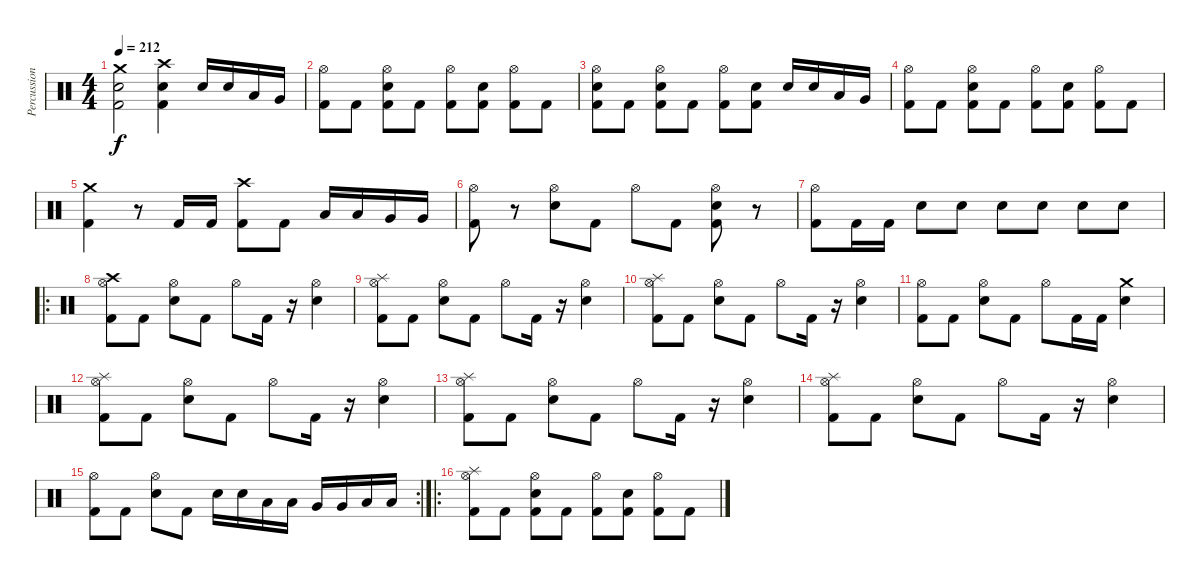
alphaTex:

\track ("Percussions" "Percussion") {instrument percussion}
\staff {score}
\articulation defaults
\ts (4 4)
\tempo 212
\clef neutral
\ks c
("Crash medium (hit)" "Snare (hit) 2" "Kick (hit) 2").2{dy f} ("Crash high (hit)" "Snare (hit) 2" "Kick (hit) 2").4 "Snare (hit) 2".16 "Snare (hit) 2".16 "Low Tom (hit)".16 "Very Low Tom (hit)".16 |
("Hi-Hat (open)" "Kick (hit) 2").8 "Kick (hit) 2".8 ("Hi-Hat (open)" "Snare (hit) 2" "Kick (hit) 2").8 "Kick (hit) 2".8 ("Hi-Hat (open)" "Kick (hit) 2").8 ("Snare (hit) 2" "Kick (hit) 2").8 ("Hi-Hat (open)" "Kick (hit) 2").8 "Kick (hit) 2".8 |
("Hi-Hat (open)" "Snare (hit) 2" "Kick (hit) 2").8 "Kick (hit) 2".8 ("Hi-Hat (open)" "Snare (hit) 2" "Kick (hit) 2").8 "Kick (hit) 2".8 ("Hi-Hat (open)" "Kick (hit) 2").8 ("Snare (hit) 2" "Kick (hit) 2").8 "Snare (hit) 2".16 "Snare (hit) 2".16 "Low Tom (hit)".16 "Very Low Tom (hit)".16 |
("Hi-Hat (open)" "Kick (hit) 2").8 "Kick (hit) 2".8 ("Hi-Hat (open)" "Snare (hit) 2" "Kick (hit) 2").8 "Kick (hit) 2".8 ("Hi-Hat (open)" "Kick (hit) 2").8 ("Snare (hit) 2" "Kick (hit) 2").8 ("Hi-Hat (open)" "Kick (hit) 2").8 "Kick (hit) 2".8 |
("Crash medium (hit)" "Kick (hit) 2").4 r.8 "Kick (hit) 2".16 "Kick (hit) 2".16 ("Crash high (hit)" "Kick (hit) 2").8 "Kick (hit) 2".8 "Low Tom (hit)".16 "Low Tom (hit)".16 "Very Low Tom (hit)".16 "Very Low Tom (hit)".16 |
("Hi-Hat (open)" "Kick (hit) 2").8 r.8 ("Hi-Hat (open)" "Snare (hit) 2").8 "Kick (hit) 2".8 "Hi-Hat (open)".8 "Kick (hit) 2".8 ("Hi-Hat (open)" "Snare (hit) 2" "Kick (hit) 2").8 r.8 |
("Hi-Hat (open)" "Kick (hit) 2").8 "Kick (hit) 2".16 "Kick (hit) 2".16 "Snare (hit) 2".8 "Snare (hit) 2".8 "Snare (hit) 2".8 "Snare (hit) 2".8 "Snare (hit) 2".8 "Snare (hit) 2".8 |
\ro
("Hi-Hat (open)" "Crash high (hit)" "Kick (hit) 2").8 "Kick (hit) 2".8 ("Hi-Hat (open)" "Snare (hit) 2").8 "Kick (hit) 2".8 "Hi-Hat (open)".8 "Kick (hit) 2".16 r.16 ("Hi-Hat (open)" "Snare (hit) 2").4 |
("Hi-Hat (open)" "Splash (hit)" "Kick (hit) 2").8 "Kick (hit) 2".8 ("Hi-Hat (open)" "Snare (hit) 2").8 "Kick (hit) 2".8 "Hi-Hat (open)".8 "Kick (hit) 2".16 r.16 ("Hi-Hat (open)" "Snare (hit) 2").4 |
("Hi-Hat (open)" "Splash (hit)" "Kick (hit) 2").8 "Kick (hit) 2".8 ("Hi-Hat (open)" "Snare (hit) 2").8 "Kick (hit) 2".8 "Hi-Hat (open)".8 "Kick (hit) 2".16 r.16 ("Hi-Hat (open)" "Snare (hit) 2").4 |
("Hi-Hat (open)" "Kick (hit) 2").8 "Kick (hit) 2".8 ("Hi-Hat (open)" "Snare (hit) 2").8 "Kick (hit) 2".8 "Hi-Hat (open)".8 "Kick (hit) 2".16 "Kick (hit) 2".16 ("Crash medium (hit)" "Snare (hit) 2").4 |
("Hi-Hat (open)" "Splash (hit)" "Kick (hit) 2").8 "Kick (hit) 2".8 ("Hi-Hat (open)" "Snare (hit) 2").8 "Kick (hit) 2".8 "Hi-Hat (open)".8 "Kick (hit) 2".16 r.16 ("Hi-Hat (open)" "Snare (hit) 2").4 |
("Hi-Hat (open)" "Splash (hit)" "Kick (hit) 2").8 "Kick (hit) 2".8 ("Hi-Hat (open)" "Snare (hit) 2").8 "Kick (hit) 2".8 "Hi-Hat (open)".8 "Kick (hit) 2".16 r.16 ("Hi-Hat (open)" "Snare (hit) 2").4 |
("Hi-Hat (open)" "Splash (hit)" "Kick (hit) 2").8 "Kick (hit) 2".8 ("Hi-Hat (open)" "Snare (hit) 2").8 "Kick (hit) 2".8 "Hi-Hat (open)".8 "Kick (hit) 2".16 r.16 ("Hi-Hat (open)" "Snare (hit) 2").4 |
\rc 2
("Hi-Hat (open)" "Kick (hit) 2").8 "Kick (hit) 2".8 ("Hi-Hat (open)" "Snare (hit) 2").8 "Kick (hit) 2".8 "Snare (hit) 2".16 "Snare (hit) 2".16 "Low Tom (hit)".16 "Low Tom (hit)".16 "Very Low Tom (hit)".16 "Very Low Tom (hit)".16 "Low Floor Tom (hit)".16 "Low Floor Tom (hit)".16 |
\ro
("Hi-Hat (open)" "Splash (hit)" "Kick (hit) 2").8 "Kick (hit) 2".8 ("Hi-Hat (open)" "Snare (hit) 2" "Kick (hit) 2").8 "Kick (hit) 2".8 ("Hi-Hat (open)" "Kick (hit) 2").8 ("Snare (hit) 2" "Kick (hit) 2").8 ("Hi-Hat (open)" "Kick (hit) 2").8 "Kick (hit) 2".8
